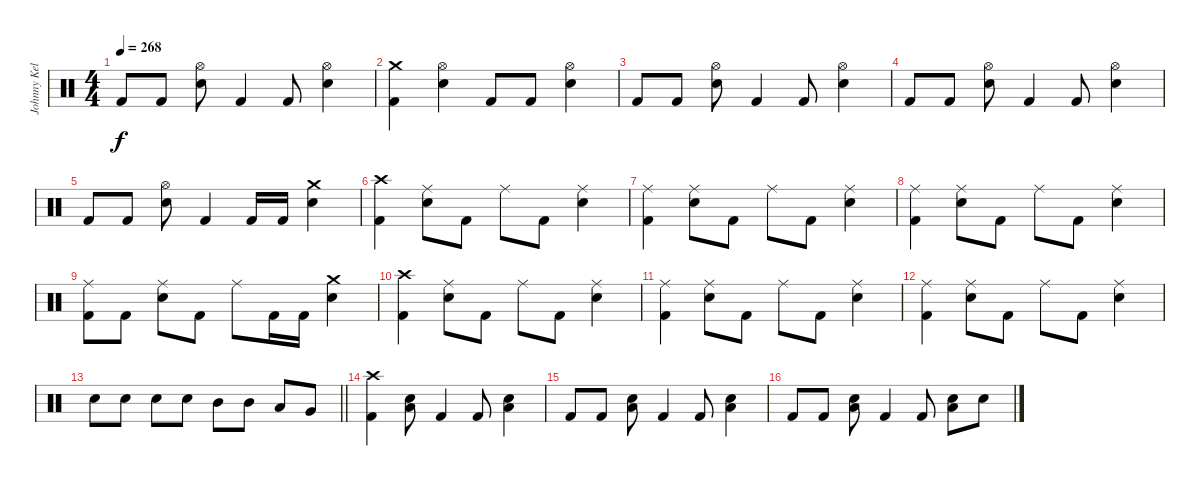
\track ("Johnny Kelly" "Johnny Kel") {instrument percussion}
\staff {score}
\articulation defaults
\ts (4 4)
\tempo 268
\clef neutral
\ks c "Kick (hit) 2".8{dy f} "Kick (hit) 2".8
("Hi-Hat (open)" "Electric Snare (hit)").8 "Kick (hit) 2".4 "Kick (hit) 2".8 ("Hi-Hat (open)" "Electric Snare (hit)").4 |
("Crash medium (hit)" "Kick (hit) 2").4 ("Hi-Hat (open)" "Electric Snare (hit)").4 "Kick (hit) 2".8 "Kick (hit) 2".8 ("Hi-Hat (open)" "Electric Snare (hit)").4 |
"Kick (hit) 2".8 "Kick (hit) 2".8 ("Hi-Hat (open)" "Electric Snare (hit)").8 "Kick (hit) 2".4 "Kick (hit) 2".8 ("Hi-Hat (open)" "Electric Snare (hit)").4 |
"Kick (hit) 2".8 "Kick (hit) 2".8 ("Hi-Hat (open)" "Electric Snare (hit)").8 "Kick (hit) 2".4 "Kick (hit) 2".8 ("Hi-Hat (open)" "Electric Snare (hit)").4 |
"Kick (hit) 2".8 "Kick (hit) 2".8 ("Hi-Hat (open)" "Electric Snare (hit)").8 "Kick (hit) 2".4 "Kick (hit) 2".16 "Kick (hit) 2".16 ("Crash medium (hit)" "Electric Snare (hit)").4 |
("Crash high (hit)" "Kick (hit) 2").4 ("Ride (middle)" "Electric Snare (hit)").8 "Kick (hit) 2".8 "Ride (middle)".8 "Kick (hit) 2".8 ("Ride (middle)" "Electric Snare (hit)").4 |
("Ride (middle)" "Kick (hit) 2").4 ("Ride (middle)" "Electric Snare (hit)").8 "Kick (hit) 2".8 "Ride (middle)".8 "Kick (hit) 2".8 ("Ride (middle)" "Electric Snare (hit)").4 |
("Ride (middle)" "Kick (hit) 2").4 ("Ride (middle)" "Electric Snare (hit)").8 "Kick (hit) 2".8 "Ride (middle)".8 "Kick (hit) 2".8 ("Ride (middle)" "Electric Snare (hit)").4 |
("Ride (middle)" "Kick (hit) 2").8 "Kick (hit) 2".8 ("Ride (middle)" "Electric Snare (hit)").8 "Kick (hit) 2".8 "Ride (middle)".8 "Kick (hit) 2".16 "Kick (hit) 2".16 ("Crash medium (hit)" "Electric Snare (hit)").4 |
("Crash high (hit)" "Kick (hit) 2").4 ("Ride (middle)" "Electric Snare (hit)").8 "Kick (hit) 2".8 "Ride (middle)".8 "Kick (hit) 2".8 ("Ride (middle)" "Electric Snare (hit)").4 |
("Ride (middle)" "Kick (hit) 2").4 ("Ride (middle)" "Electric Snare (hit)").8 "Kick (hit) 2".8 "Ride (middle)".8 "Kick (hit) 2".8 ("Ride (middle)" "Electric Snare (hit)").4 |
("Ride (middle)" "Kick (hit) 2").4 ("Ride (middle)" "Electric Snare (hit)").8 "Kick (hit) 2".8 "Ride (middle)".8 "Kick (hit) 2".8 ("Ride (middle)" "Electric Snare (hit)").4 |
\barLineRight lightlight "Electric Snare (hit)".8 "Electric Snare (hit)".8 "Electric Snare (hit)".8 "Electric Snare (hit)".8 "Mid Tom (hit)".8 "Mid Tom (hit)".8 "Low Tom (hit)".8 "Very Low Tom (hit)".8
|
\section ("" "")
("Crash high (hit)" "Kick (hit) 2").4 ("Electric Snare (hit)" "Low Floor Tom (hit)").8 "Kick (hit) 2".4 "Kick (hit) 2".8 ("Electric Snare (hit)" "Low Floor Tom (hit)").4 |
"Kick (hit) 2".8 "Kick (hit) 2".8 ("Electric Snare (hit)" "Low Floor Tom (hit)").8 "Kick (hit) 2".4 "Kick (hit) 2".8 ("Electric Snare (hit)" "Low Floor Tom (hit)").4 |
"Kick (hit) 2".8 "Kick (hit) 2".8 ("Electric Snare (hit)" "Low Floor Tom (hit)").8 "Kick (hit) 2".4 "Kick (hit) 2".8 ("Electric Snare (hit)" "Low Floor Tom (hit)").8 "Electric Snare (hit)".8
